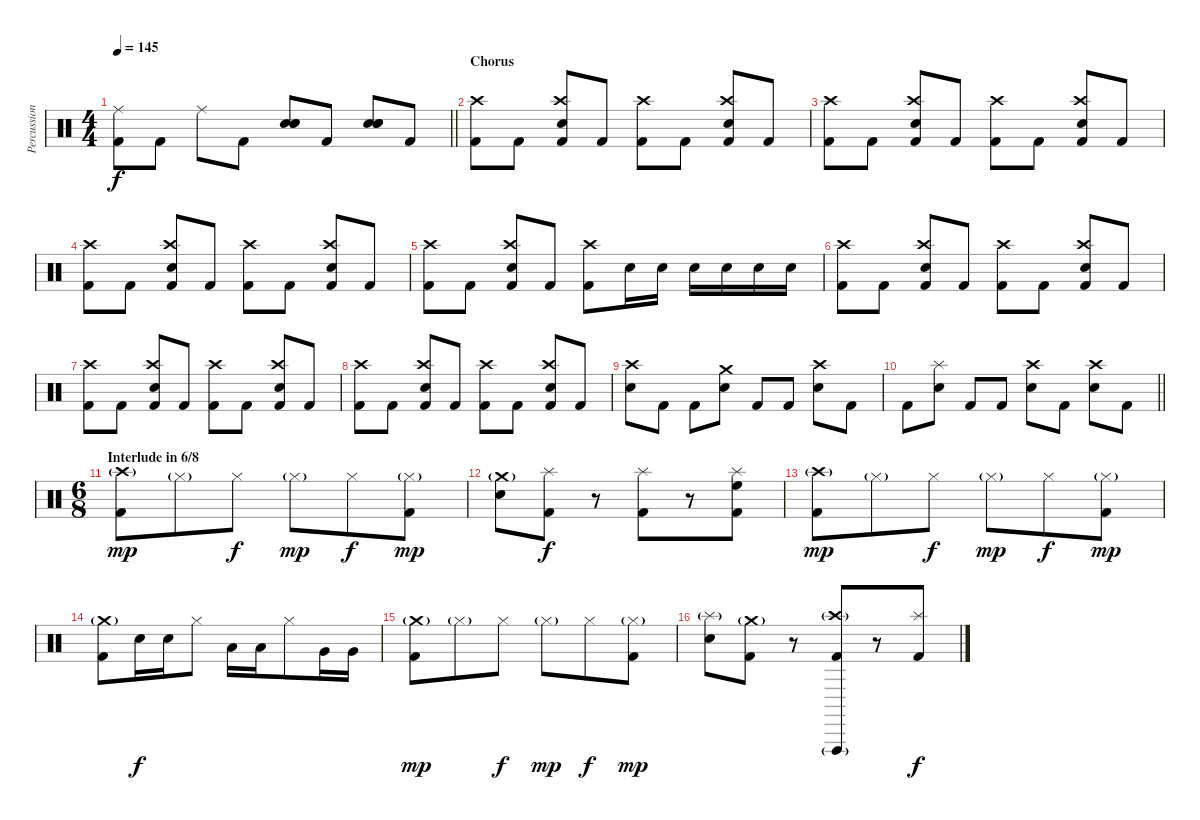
\track ("Percussion" "Percussion") {instrument percussion}
\staff {score}
\articulation defaults
\ts (4 4)
\tempo 145
\clef neutral
\barLineRight lightlight
\ks c
("Ride (middle)" "Kick (hit) 2").8{dy f} "Kick (hit) 2".8 "Ride (middle)".8 "Kick (hit) 2".8 ("Snare (hit) 2" "Snare (hit) 2" "Snare (hit) 2").8 "Kick (hit) 2".8 ("Snare (hit) 2" "Snare (hit) 2" "Snare (hit) 2").8 "Kick (hit) 2".8 |
\section ("" "Chorus")
("Crash high (hit)" "Kick (hit) 2").8 "Kick (hit) 2".8 ("Crash high (hit)" "Electric Snare (hit)" "Kick (hit) 2").8 "Kick (hit) 2".8 ("Crash high (hit)" "Kick (hit) 2").8 "Kick (hit) 2".8 ("Crash high (hit)" "Electric Snare (hit)" "Kick (hit) 2").8 "Kick (hit) 2".8 |
("Crash high (hit)" "Kick (hit) 2").8 "Kick (hit) 2".8 ("Crash high (hit)" "Electric Snare (hit)" "Kick (hit) 2").8 "Kick (hit) 2".8 ("Crash high (hit)" "Kick (hit) 2").8 "Kick (hit) 2".8 ("Crash high (hit)" "Electric Snare (hit)" "Kick (hit) 2").8 "Kick (hit) 2".8 |
("Crash high (hit)" "Kick (hit) 2").8 "Kick (hit) 2".8 ("Crash high (hit)" "Electric Snare (hit)" "Kick (hit) 2").8 "Kick (hit) 2".8 ("Crash high (hit)" "Kick (hit) 2").8 "Kick (hit) 2".8 ("Crash high (hit)" "Electric Snare (hit)" "Kick (hit) 2").8 "Kick (hit) 2".8 |
("Crash high (hit)" "Kick (hit) 2").8 "Kick (hit) 2".8 ("Crash high (hit)" "Electric Snare (hit)" "Kick (hit) 2").8 "Kick (hit) 2".8 ("Crash high (hit)" "Kick (hit) 2").8 "Snare (hit) 2".16 "Snare (hit) 2".16 "Snare (hit) 2".16 "Snare (hit) 2".16 "Snare (hit) 2".16 "Snare (hit) 2".16 |
("Crash high (hit)" "Kick (hit) 2").8 "Kick (hit) 2".8 ("Crash high (hit)" "Electric Snare (hit)" "Kick (hit) 2").8 "Kick (hit) 2".8 ("Crash high (hit)" "Kick (hit) 2").8 "Kick (hit) 2".8 ("Crash high (hit)" "Electric Snare (hit)" "Kick (hit) 2").8 "Kick (hit) 2".8 |
("Crash high (hit)" "Kick (hit) 2").8 "Kick (hit) 2".8 ("Crash high (hit)" "Electric Snare (hit)" "Kick (hit) 2").8 "Kick (hit) 2".8 ("Crash high (hit)" "Kick (hit) 2").8 "Kick (hit) 2".8 ("Crash high (hit)" "Electric Snare (hit)" "Kick (hit) 2").8 "Kick (hit) 2".8 |
("Crash high (hit)" "Kick (hit) 2").8 "Kick (hit) 2".8 ("Crash high (hit)" "Electric Snare (hit)" "Kick (hit) 2").8 "Kick (hit) 2".8 ("Crash high (hit)" "Kick (hit) 2").8 "Kick (hit) 2".8 ("Crash high (hit)" "Electric Snare (hit)" "Kick (hit) 2").8 "Kick (hit) 2".8 |
("Crash high (hit)" "Snare (hit) 2").8 "Kick (hit) 2".8 "Kick (hit) 2".8 ("Crash medium (hit)" "Snare (hit) 2").8 "Kick (hit) 2".8 "Kick (hit) 2".8 ("Crash high (hit)" "Snare (hit) 2").8 "Kick (hit) 2".8 |
\barLineRight lightlight "Kick (hit) 2".8
("Splash (hit)" "Snare (hit) 2").8 "Kick (hit) 2".8 "Kick (hit) 2".8 ("Crash high (hit)" "Snare (hit) 2").8 "Kick (hit) 2".8 ("Crash high (hit)" "Snare (hit) 2").8 "Kick (hit) 2".8 |
\ts (6 8)
\section ("" "Interlude in 6/8")
("Crash high (hit)"{g} "Kick (hit) 2").8{dy mp} "Hi-Hat (closed)"{g}.8 "Hi-Hat (closed)".8{dy f} "Hi-Hat (closed)"{g}.8{dy mp} "Hi-Hat (closed)".8{dy f} ("Hi-Hat (closed)"{g} "Kick (hit) 2").8{dy mp} |
("Crash medium (hit)"{g} "Snare (hit) 2").8 ("Splash (hit)" "Kick (hit) 2").8{dy f} r.8 ("Splash (hit)" "Kick (hit) 2").8 r.8 ("Splash (hit)" "High Floor Tom (hit)" "Kick (hit) 2").8 |
("Crash high (hit)"{g} "Kick (hit) 2").8{dy mp} "Hi-Hat (closed)"{g}.8 "Hi-Hat (closed)".8{dy f} "Hi-Hat (closed)"{g}.8{dy mp} "Hi-Hat (closed)".8{dy f} ("Hi-Hat (closed)"{g} "Kick (hit) 2").8{dy mp} |
("Crash medium (hit)"{g} "Kick (hit) 2").8 "Snare (hit) 2".16{dy f} "Snare (hit) 2".16 "Hi-Hat (closed)".8 "Low Tom (hit)".16 "Low Tom (hit)".16 "Hi-Hat (closed)".8 "Very Low Tom (hit)".16 "Very Low Tom (hit)".16 |
("Crash medium (hit)"{g} "Kick (hit) 2").8{dy mp} "Hi-Hat (closed)"{g}.8 "Hi-Hat (closed)".8{dy f} "Hi-Hat (closed)"{g}.8{dy mp} "Hi-Hat (closed)".8{dy f} ("Hi-Hat (closed)"{g} "Kick (hit) 2").8{dy mp} |
("Splash (hit)"{g} "Snare (hit) 2").8 ("Crash medium (hit)"{g} "Kick (hit) 2").8 r.8 ("Vibraslap (hit)"{g} "Crash high (hit)"{g} "Kick (hit) 2").8 r.8 ("Splash (hit)" "Kick (hit) 2").8{dy f}
